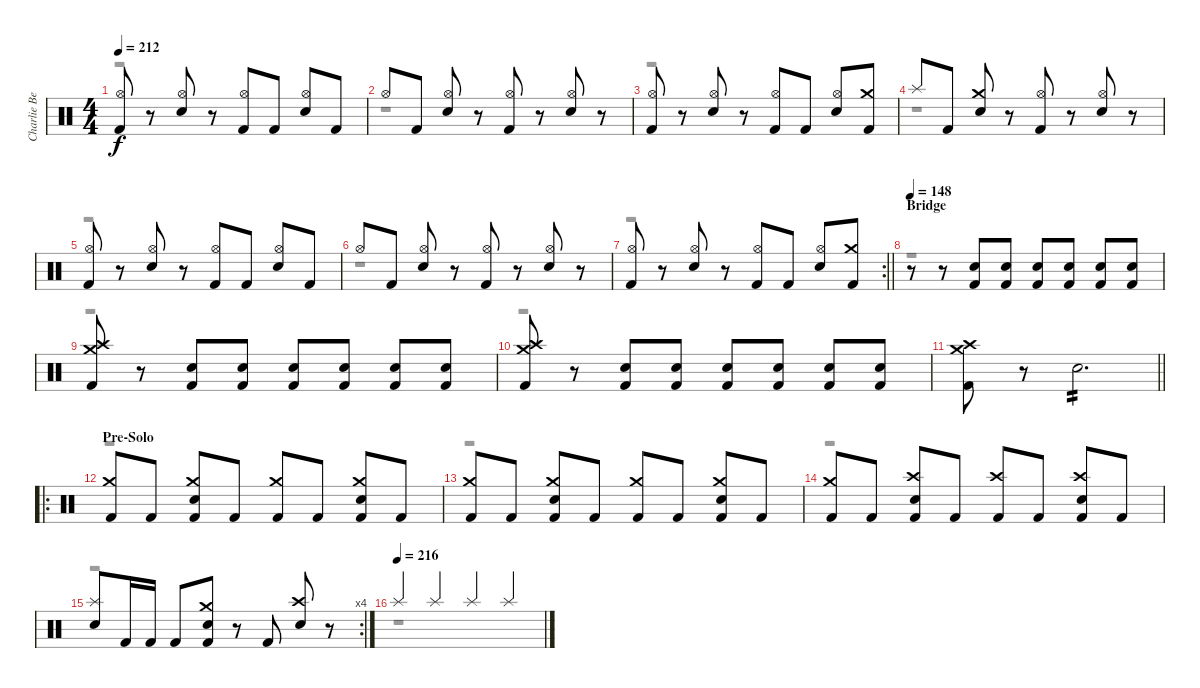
\track ("Charlie Benante" "Charlie Be") {instrument percussion}
\staff {score}
\articulation defaults
\voice
\ts (4 4)
\tempo 212
\clef neutral
\ks c
("Hi-Hat (open)" "Kick (hit) 2").8{dy f} r.8 ("Hi-Hat (open)" "Electric Snare (hit)").8 r.8 ("Hi-Hat (open)" "Kick (hit) 2").8 "Kick (hit) 2".8 ("Hi-Hat (open)" "Electric Snare (hit)").8 "Kick (hit) 2".8 |
"Hi-Hat (open)".8 "Kick (hit) 2".8 ("Hi-Hat (open)" "Electric Snare (hit)").8 r.8 ("Hi-Hat (open)" "Kick (hit) 2").8 r.8 ("Hi-Hat (open)" "Electric Snare (hit)").8 r.8 |
("Hi-Hat (open)" "Kick (hit) 2").8 r.8 ("Hi-Hat (open)" "Electric Snare (hit)").8 r.8 ("Hi-Hat (open)" "Kick (hit) 2").8 "Kick (hit) 2".8 ("Hi-Hat (open)" "Electric Snare (hit)").8 ("Crash medium (hit)" "Kick (hit) 2").8 |
"Splash (hit)".8 "Kick (hit) 2".8 ("Crash medium (hit)" "Electric Snare (hit)").8 r.8 ("Hi-Hat (open)" "Kick (hit) 2").8 r.8 ("Hi-Hat (open)" "Electric Snare (hit)").8 r.8 |
("Hi-Hat (open)" "Kick (hit) 2").8 r.8 ("Hi-Hat (open)" "Electric Snare (hit)").8 r.8 ("Hi-Hat (open)" "Kick (hit) 2").8 "Kick (hit) 2".8 ("Hi-Hat (open)" "Electric Snare (hit)").8 "Kick (hit) 2".8 |
"Hi-Hat (open)".8 "Kick (hit) 2".8 ("Hi-Hat (open)" "Electric Snare (hit)").8 r.8 ("Hi-Hat (open)" "Kick (hit) 2").8 r.8 ("Hi-Hat (open)" "Electric Snare (hit)").8 r.8 |
\rc 2
\barLineRight lightlight
("Hi-Hat (open)" "Kick (hit) 2").8 r.8 ("Hi-Hat (open)" "Electric Snare (hit)").8 r.8 ("Hi-Hat (open)" "Kick (hit) 2").8 "Kick (hit) 2".8 ("Hi-Hat (open)" "Electric Snare (hit)").8 ("Crash medium (hit)" "Kick (hit) 2").8 |
\section ("" "Bridge")
\tempo 148
r.8 r.8 ("Electric Snare (hit)" "Kick (hit) 2").8 ("Electric Snare (hit)" "Kick (hit) 2").8 ("Electric Snare (hit)" "Kick (hit) 2").8 ("Electric Snare (hit)" "Kick (hit) 2").8 ("Electric Snare (hit)" "Kick (hit) 2").8 ("Electric Snare (hit)" "Kick (hit) 2").8 |
("Crash high (hit)" "Crash medium (hit)" "Kick (hit) 2").8 r.8 ("Electric Snare (hit)" "Kick (hit) 2").8 ("Electric Snare (hit)" "Kick (hit) 2").8 ("Electric Snare (hit)" "Kick (hit) 2").8 ("Electric Snare (hit)" "Kick (hit) 2").8 ("Electric Snare (hit)" "Kick (hit) 2").8 ("Electric Snare (hit)" "Kick (hit) 2").8 |
("Crash high (hit)" "Crash medium (hit)" "Kick (hit) 2").8 r.8 ("Electric Snare (hit)" "Kick (hit) 2").8 ("Electric Snare (hit)" "Kick (hit) 2").8 ("Electric Snare (hit)" "Kick (hit) 2").8 ("Electric Snare (hit)" "Kick (hit) 2").8 ("Electric Snare (hit)" "Kick (hit) 2").8 ("Electric Snare (hit)" "Kick (hit) 2").8 |
\barLineRight lightlight
("Crash high (hit)" "Crash medium (hit)" "Kick (hit) 2").8 r.8 "Electric Snare (hit)".2{d tp 2} |
\ro
\section ("" "Pre-Solo")
("Crash medium (hit)" "Kick (hit) 2").8 "Kick (hit) 2".8 ("Crash medium (hit)" "Electric Snare (hit)" "Kick (hit) 2").8 "Kick (hit) 2".8 ("Crash medium (hit)" "Kick (hit) 2").8 "Kick (hit) 2".8 ("Crash medium (hit)" "Electric Snare (hit)" "Kick (hit) 2").8 "Kick (hit) 2".8 |
("Crash medium (hit)" "Kick (hit) 2").8 "Kick (hit) 2".8 ("Crash medium (hit)" "Electric Snare (hit)" "Kick (hit) 2").8 "Kick (hit) 2".8 ("Crash medium (hit)" "Kick (hit) 2").8 "Kick (hit) 2".8 ("Crash medium (hit)" "Electric Snare (hit)" "Kick (hit) 2").8 "Kick (hit) 2".8 |
("Crash medium (hit)" "Kick (hit) 2").8 "Kick (hit) 2".8 ("Crash high (hit)" "Electric Snare (hit)" "Kick (hit) 2").8 "Kick (hit) 2".8 ("Crash high (hit)" "Kick (hit) 2").8 "Kick (hit) 2".8 ("Crash high (hit)" "Electric Snare (hit)" "Kick (hit) 2").8 "Kick (hit) 2".8 |
\rc 4
("Splash (hit)" "Electric Snare (hit)").8 "Kick (hit) 2".16 "Kick (hit) 2".16 "Kick (hit) 2".8 ("Crash medium (hit)" "Electric Snare (hit)" "Kick (hit) 2").8 r.8 "Kick (hit) 2".8 ("Crash high (hit)" "Electric Snare (hit)").8 r.8 |
\tempo (216)
"Splash (hit)".4 "Splash (hit)".4 "Splash (hit)".4 "Splash (hit)".4
\voice
\clef neutral
\ottava regular
\simile none
\ks c
r.1{dy f} |
r.1 |
r.1 |
r.1 |
r.1 |
r.1 |
\barLineRight lightlight
r.1 |
r.1 |
r.1 |
r.1 |
\barLineRight lightlight
|
r.1 |
r.1 |
r.1 |
r.1 |
r.1
